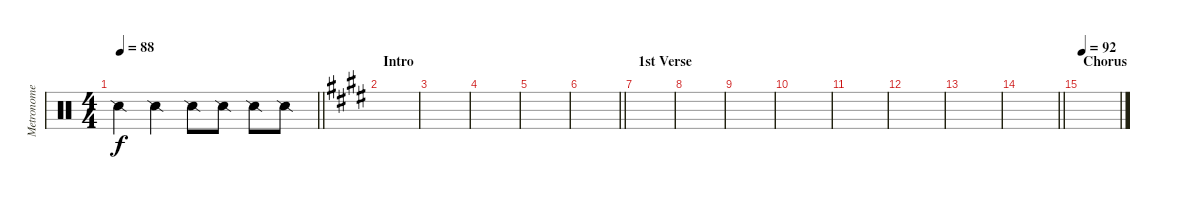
\track ("Metronome" "Metronome") {instrument percussion}
\staff {score}
\articulation defaults
\ts (4 4)
\tempo 88
\clef neutral
\barLineRight lightlight
\ks c "Snare (side stick) 2".4{dy f} "Snare (side stick) 2".4 "Snare (side stick) 2".8 "Snare (side stick) 2".8 "Snare (side stick) 2".8 "Snare (side stick) 2".8
|
\section ("" "Intro")
\ks e
|
|
|
|
\barLineRight lightlight
|
\section ("" "1st Verse")
|
|
|
|
|
|
|
\barLineRight lightlight
|
\section ("" "Chorus")
\tempo 92
